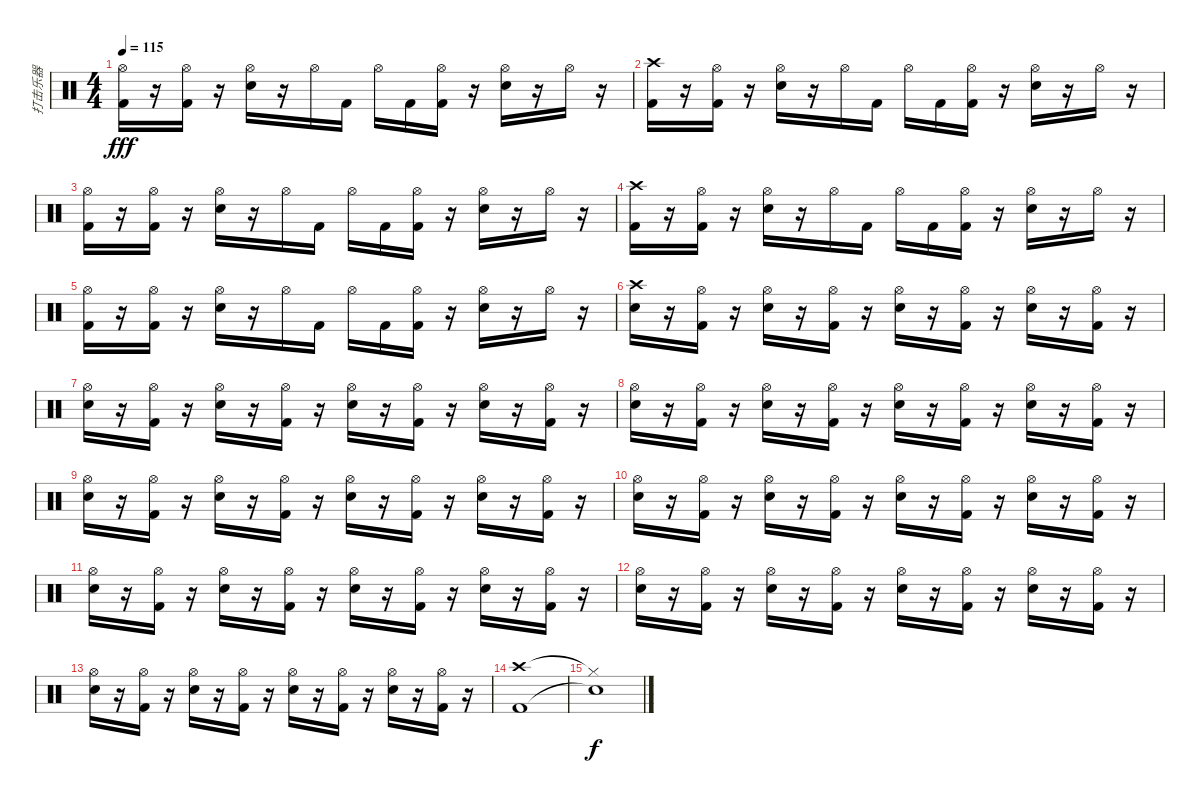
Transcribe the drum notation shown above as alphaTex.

\track ("打击乐器" "打击乐器") {instrument percussion}
\staff {score}
\articulation defaults
\ts (4 4)
\tempo 115
\clef neutral
\ks c
("Hi-Hat (open)" "Kick (hit) 2").16{dy fff} r.16 ("Hi-Hat (open)" "Kick (hit) 2").16 r.16 ("Hi-Hat (open)" "Electric Snare (hit)").16 r.16 "Hi-Hat (open)".16 "Kick (hit) 2".16 "Hi-Hat (open)".16 "Kick (hit) 2".16 ("Hi-Hat (open)" "Kick (hit) 2").16 r.16 ("Hi-Hat (open)" "Electric Snare (hit)").16 r.16 "Hi-Hat (open)".16 r.16 |
("Crash high (hit)" "Kick (hit) 2").16 r.16 ("Hi-Hat (open)" "Kick (hit) 2").16 r.16 ("Hi-Hat (open)" "Electric Snare (hit)").16 r.16 "Hi-Hat (open)".16 "Kick (hit) 2".16 "Hi-Hat (open)".16 "Kick (hit) 2".16 ("Hi-Hat (open)" "Kick (hit) 2").16 r.16 ("Hi-Hat (open)" "Electric Snare (hit)").16 r.16 "Hi-Hat (open)".16 r.16 |
("Hi-Hat (open)" "Kick (hit) 2").16 r.16 ("Hi-Hat (open)" "Kick (hit) 2").16 r.16 ("Hi-Hat (open)" "Electric Snare (hit)").16 r.16 "Hi-Hat (open)".16 "Kick (hit) 2".16 "Hi-Hat (open)".16 "Kick (hit) 2".16 ("Hi-Hat (open)" "Kick (hit) 2").16 r.16 ("Hi-Hat (open)" "Electric Snare (hit)").16 r.16 "Hi-Hat (open)".16 r.16 |
("Crash high (hit)" "Kick (hit) 2").16 r.16 ("Hi-Hat (open)" "Kick (hit) 2").16 r.16 ("Hi-Hat (open)" "Electric Snare (hit)").16 r.16 "Hi-Hat (open)".16 "Kick (hit) 2".16 "Hi-Hat (open)".16 "Kick (hit) 2".16 ("Hi-Hat (open)" "Kick (hit) 2").16 r.16 ("Hi-Hat (open)" "Electric Snare (hit)").16 r.16 "Hi-Hat (open)".16 r.16 |
("Hi-Hat (open)" "Kick (hit) 2").16 r.16 ("Hi-Hat (open)" "Kick (hit) 2").16 r.16 ("Hi-Hat (open)" "Electric Snare (hit)").16 r.16 "Hi-Hat (open)".16 "Kick (hit) 2".16 "Hi-Hat (open)".16 "Kick (hit) 2".16 ("Hi-Hat (open)" "Kick (hit) 2").16 r.16 ("Hi-Hat (open)" "Electric Snare (hit)").16 r.16 "Hi-Hat (open)".16 r.16 |
("Crash high (hit)" "Electric Snare (hit)").16 r.16 ("Hi-Hat (open)" "Kick (hit) 2").16 r.16 ("Hi-Hat (open)" "Electric Snare (hit)").16 r.16 ("Hi-Hat (open)" "Kick (hit) 2").16 r.16 ("Hi-Hat (open)" "Electric Snare (hit)").16 r.16 ("Hi-Hat (open)" "Kick (hit) 2").16 r.16 ("Hi-Hat (open)" "Electric Snare (hit)").16 r.16 ("Hi-Hat (open)" "Kick (hit) 2").16 r.16 |
("Hi-Hat (open)" "Electric Snare (hit)").16 r.16 ("Hi-Hat (open)" "Kick (hit) 2").16 r.16 ("Hi-Hat (open)" "Electric Snare (hit)").16 r.16 ("Hi-Hat (open)" "Kick (hit) 2").16 r.16 ("Hi-Hat (open)" "Electric Snare (hit)").16 r.16 ("Hi-Hat (open)" "Kick (hit) 2").16 r.16 ("Hi-Hat (open)" "Electric Snare (hit)").16 r.16 ("Hi-Hat (open)" "Kick (hit) 2").16 r.16 |
("Hi-Hat (open)" "Electric Snare (hit)").16 r.16 ("Hi-Hat (open)" "Kick (hit) 2").16 r.16 ("Hi-Hat (open)" "Electric Snare (hit)").16 r.16 ("Hi-Hat (open)" "Kick (hit) 2").16 r.16 ("Hi-Hat (open)" "Electric Snare (hit)").16 r.16 ("Hi-Hat (open)" "Kick (hit) 2").16 r.16 ("Hi-Hat (open)" "Electric Snare (hit)").16 r.16 ("Hi-Hat (open)" "Kick (hit) 2").16 r.16 |
("Hi-Hat (open)" "Electric Snare (hit)").16 r.16 ("Hi-Hat (open)" "Kick (hit) 2").16 r.16 ("Hi-Hat (open)" "Electric Snare (hit)").16 r.16 ("Hi-Hat (open)" "Kick (hit) 2").16 r.16 ("Hi-Hat (open)" "Electric Snare (hit)").16 r.16 ("Hi-Hat (open)" "Kick (hit) 2").16 r.16 ("Hi-Hat (open)" "Electric Snare (hit)").16 r.16 ("Hi-Hat (open)" "Kick (hit) 2").16 r.16 |
("Hi-Hat (open)" "Electric Snare (hit)").16 r.16 ("Hi-Hat (open)" "Kick (hit) 2").16 r.16 ("Hi-Hat (open)" "Electric Snare (hit)").16 r.16 ("Hi-Hat (open)" "Kick (hit) 2").16 r.16 ("Hi-Hat (open)" "Electric Snare (hit)").16 r.16 ("Hi-Hat (open)" "Kick (hit) 2").16 r.16 ("Hi-Hat (open)" "Electric Snare (hit)").16 r.16 ("Hi-Hat (open)" "Kick (hit) 2").16 r.16 |
("Hi-Hat (open)" "Electric Snare (hit)").16 r.16 ("Hi-Hat (open)" "Kick (hit) 2").16 r.16 ("Hi-Hat (open)" "Electric Snare (hit)").16 r.16 ("Hi-Hat (open)" "Kick (hit) 2").16 r.16 ("Hi-Hat (open)" "Electric Snare (hit)").16 r.16 ("Hi-Hat (open)" "Kick (hit) 2").16 r.16 ("Hi-Hat (open)" "Electric Snare (hit)").16 r.16 ("Hi-Hat (open)" "Kick (hit) 2").16 r.16 |
("Hi-Hat (open)" "Electric Snare (hit)").16 r.16 ("Hi-Hat (open)" "Kick (hit) 2").16 r.16 ("Hi-Hat (open)" "Electric Snare (hit)").16 r.16 ("Hi-Hat (open)" "Kick (hit) 2").16 r.16 ("Hi-Hat (open)" "Electric Snare (hit)").16 r.16 ("Hi-Hat (open)" "Kick (hit) 2").16 r.16 ("Hi-Hat (open)" "Electric Snare (hit)").16 r.16 ("Hi-Hat (open)" "Kick (hit) 2").16 r.16 |
("Hi-Hat (open)" "Electric Snare (hit)").16 r.16 ("Hi-Hat (open)" "Kick (hit) 2").16 r.16 ("Hi-Hat (open)" "Electric Snare (hit)").16 r.16 ("Hi-Hat (open)" "Kick (hit) 2").16 r.16 ("Hi-Hat (open)" "Electric Snare (hit)").16 r.16 ("Hi-Hat (open)" "Kick (hit) 2").16 r.16 ("Hi-Hat (open)" "Electric Snare (hit)").16 r.16 ("Hi-Hat (open)" "Kick (hit) 2").16 r.16 |
("Crash high (hit)" "Kick (hit) 2").1 |
("Hi-Hat (closed)"{t} "Snare (hit)"{t}).1{dy f}
